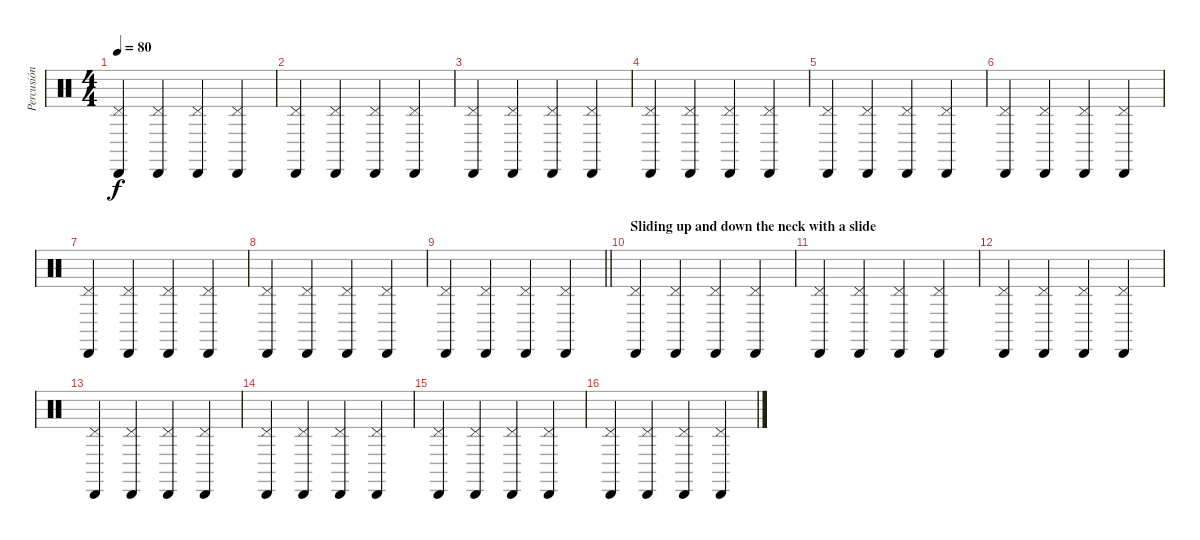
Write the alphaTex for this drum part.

\track ("Percusión" "Percusión") {instrument percussion}
\staff {score}
\articulation defaults
\ts (4 4)
\tempo 80
\clef neutral
\ks c
("Cabasa (hit)" "Pedal Hi-Hat (hit)").4{dy f} ("Cabasa (hit)" "Pedal Hi-Hat (hit)").4 ("Cabasa (hit)" "Pedal Hi-Hat (hit)").4 ("Cabasa (hit)" "Pedal Hi-Hat (hit)").4 |
("Cabasa (hit)" "Pedal Hi-Hat (hit)").4 ("Cabasa (hit)" "Pedal Hi-Hat (hit)").4 ("Cabasa (hit)" "Pedal Hi-Hat (hit)").4 ("Cabasa (hit)" "Pedal Hi-Hat (hit)").4 |
("Cabasa (hit)" "Pedal Hi-Hat (hit)").4 ("Cabasa (hit)" "Pedal Hi-Hat (hit)").4 ("Cabasa (hit)" "Pedal Hi-Hat (hit)").4 ("Cabasa (hit)" "Pedal Hi-Hat (hit)").4 |
("Cabasa (hit)" "Pedal Hi-Hat (hit)").4 ("Cabasa (hit)" "Pedal Hi-Hat (hit)").4 ("Cabasa (hit)" "Pedal Hi-Hat (hit)").4 ("Cabasa (hit)" "Pedal Hi-Hat (hit)").4 |
("Cabasa (hit)" "Pedal Hi-Hat (hit)").4 ("Cabasa (hit)" "Pedal Hi-Hat (hit)").4 ("Cabasa (hit)" "Pedal Hi-Hat (hit)").4 ("Cabasa (hit)" "Pedal Hi-Hat (hit)").4 |
("Cabasa (hit)" "Pedal Hi-Hat (hit)").4 ("Cabasa (hit)" "Pedal Hi-Hat (hit)").4 ("Cabasa (hit)" "Pedal Hi-Hat (hit)").4 ("Cabasa (hit)" "Pedal Hi-Hat (hit)").4 |
("Cabasa (hit)" "Pedal Hi-Hat (hit)").4 ("Cabasa (hit)" "Pedal Hi-Hat (hit)").4 ("Cabasa (hit)" "Pedal Hi-Hat (hit)").4 ("Cabasa (hit)" "Pedal Hi-Hat (hit)").4 |
("Cabasa (hit)" "Pedal Hi-Hat (hit)").4 ("Cabasa (hit)" "Pedal Hi-Hat (hit)").4 ("Cabasa (hit)" "Pedal Hi-Hat (hit)").4 ("Cabasa (hit)" "Pedal Hi-Hat (hit)").4 |
\barLineRight lightlight
("Cabasa (hit)" "Pedal Hi-Hat (hit)").4 ("Cabasa (hit)" "Pedal Hi-Hat (hit)").4 ("Cabasa (hit)" "Pedal Hi-Hat (hit)").4 ("Cabasa (hit)" "Pedal Hi-Hat (hit)").4 |
\section ("" "Sliding up and down the neck with a slide")
("Cabasa (hit)" "Pedal Hi-Hat (hit)").4 ("Cabasa (hit)" "Pedal Hi-Hat (hit)").4 ("Cabasa (hit)" "Pedal Hi-Hat (hit)").4 ("Cabasa (hit)" "Pedal Hi-Hat (hit)").4 |
("Cabasa (hit)" "Pedal Hi-Hat (hit)").4 ("Cabasa (hit)" "Pedal Hi-Hat (hit)").4 ("Cabasa (hit)" "Pedal Hi-Hat (hit)").4 ("Cabasa (hit)" "Pedal Hi-Hat (hit)").4 |
("Cabasa (hit)" "Pedal Hi-Hat (hit)").4 ("Cabasa (hit)" "Pedal Hi-Hat (hit)").4 ("Cabasa (hit)" "Pedal Hi-Hat (hit)").4 ("Cabasa (hit)" "Pedal Hi-Hat (hit)").4 |
("Cabasa (hit)" "Pedal Hi-Hat (hit)").4 ("Cabasa (hit)" "Pedal Hi-Hat (hit)").4 ("Cabasa (hit)" "Pedal Hi-Hat (hit)").4 ("Cabasa (hit)" "Pedal Hi-Hat (hit)").4 |
("Cabasa (hit)" "Pedal Hi-Hat (hit)").4 ("Cabasa (hit)" "Pedal Hi-Hat (hit)").4 ("Cabasa (hit)" "Pedal Hi-Hat (hit)").4 ("Cabasa (hit)" "Pedal Hi-Hat (hit)").4 |
("Cabasa (hit)" "Pedal Hi-Hat (hit)").4 ("Cabasa (hit)" "Pedal Hi-Hat (hit)").4 ("Cabasa (hit)" "Pedal Hi-Hat (hit)").4 ("Cabasa (hit)" "Pedal Hi-Hat (hit)").4 |
("Cabasa (hit)" "Pedal Hi-Hat (hit)").4 ("Cabasa (hit)" "Pedal Hi-Hat (hit)").4 ("Cabasa (hit)" "Pedal Hi-Hat (hit)").4 ("Cabasa (hit)" "Pedal Hi-Hat (hit)").4
